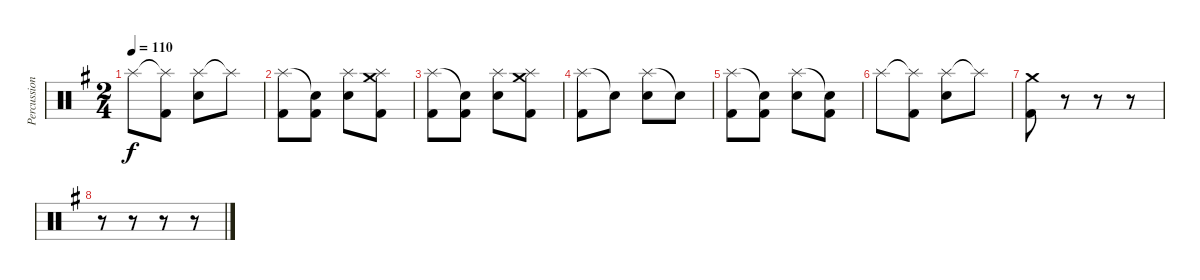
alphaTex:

\track ("Percussion" "Percussion") {instrument percussion}
\staff {score}
\articulation defaults
\ts (2 4)
\tempo 110
\clef neutral
\ks g "Splash (hit)".8{dy f}
("Splash (hit)"{t} "Kick (hit) 2").8 ("Splash (hit)" "Electric Snare (hit)").8 "Splash (hit)"{t}.8 |
("Splash (hit)" "Kick (hit) 2").8 ("Snare (hit)"{t} "Kick (hit) 2").8 ("Splash (hit)" "Electric Snare (hit)").8 ("Crash medium (hit)" "Splash (hit)" "Kick (hit) 2").8 |
("Splash (hit)" "Kick (hit) 2").8 ("Snare (hit)"{t} "Kick (hit) 2").8 ("Splash (hit)" "Electric Snare (hit)").8 ("Crash medium (hit)" "Splash (hit)" "Kick (hit) 2").8 |
("Splash (hit)" "Kick (hit) 2").8 "Snare (hit)"{t}.8 ("Splash (hit)" "Electric Snare (hit)").8 "Snare (hit)"{t}.8 |
("Splash (hit)" "Kick (hit) 2").8 ("Snare (hit)"{t} "Kick (hit) 2").8 ("Splash (hit)" "Electric Snare (hit)").8 ("Snare (hit)"{t} "Kick (hit) 2").8 |
"Splash (hit)".8 ("Splash (hit)"{t} "Kick (hit) 2").8 ("Splash (hit)" "Electric Snare (hit)").8 "Splash (hit)"{t}.8 |
("Crash medium (hit)" "Kick (hit) 2").8 r.8 r.8 r.8 |
r.8 r.8 r.8 r.8
